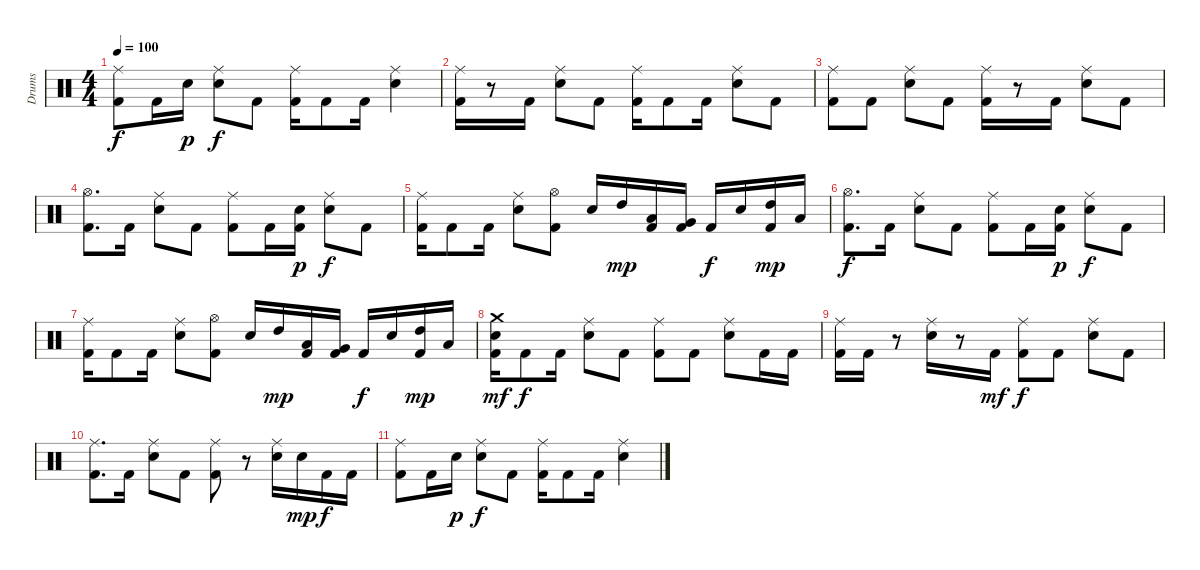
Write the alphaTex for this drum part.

\track ("Drums" "Drums") {instrument percussion}
\staff {score}
\articulation defaults
\ts (4 4)
\tempo 100
\clef neutral
\ks c
("Kick (hit) 2" "Ride (middle)").8{dy f} "Kick (hit) 2".16 "Snare (hit) 2".16{dy p} ("Ride (middle)" "Electric Snare (hit)").8{dy f} "Kick (hit) 2".8 ("Ride (middle)" "Kick (hit) 2").16 "Kick (hit) 2".8 "Kick (hit) 2".16 ("Ride (middle)" "Electric Snare (hit)").4 |
("Ride (middle)" "Kick (hit) 2").16 r.8 "Kick (hit) 2".16 ("Ride (middle)" "Electric Snare (hit)").8 "Kick (hit) 2".8 ("Ride (middle)" "Kick (hit) 2").16 "Kick (hit) 2".8 "Kick (hit) 2".16 ("Ride (middle)" "Electric Snare (hit)").8 "Kick (hit) 2".8 |
("Ride (middle)" "Kick (hit) 2").8 "Kick (hit) 2".8 ("Ride (middle)" "Electric Snare (hit)").8 "Kick (hit) 2".8 ("Ride (middle)" "Kick (hit) 2").16 r.8 "Kick (hit) 2".16 ("Ride (middle)" "Electric Snare (hit)").8 "Kick (hit) 2".8 |
("Hi-Hat (open)" "Kick (hit) 2").8{d} "Kick (hit) 2".16 ("Ride (middle)" "Electric Snare (hit)").8 "Kick (hit) 2".8 ("Kick (hit) 2" "Ride (middle)").8 "Kick (hit) 2".16 ("Kick (hit) 2" "Electric Snare (hit)").16{dy p} ("Ride (middle)" "Electric Snare (hit)").8{dy f} "Kick (hit) 2".8 |
("Ride (middle)" "Kick (hit) 2").16 "Kick (hit) 2".8 "Kick (hit) 2".16 ("Ride (middle)" "Electric Snare (hit)").8 ("Kick (hit) 2" "Hi-Hat (open)").8 "Electric Snare (hit)".16 "High Tom (hit)".16{dy mp} ("Low Tom (hit)" "Kick (hit) 2").16 ("Very Low Tom (hit)" "Kick (hit) 2").16 "Kick (hit) 2".16{dy f} "Electric Snare (hit)".16 ("Kick (hit) 2" "High Tom (hit)").16{dy mp} "Low Tom (hit)".16 |
("Hi-Hat (open)" "Kick (hit) 2").8{d dy f} "Kick (hit) 2".16 ("Ride (middle)" "Electric Snare (hit)").8 "Kick (hit) 2".8 ("Kick (hit) 2" "Ride (middle)").8 "Kick (hit) 2".16 ("Kick (hit) 2" "Electric Snare (hit)").16{dy p} ("Ride (middle)" "Electric Snare (hit)").8{dy f} "Kick (hit) 2".8 |
("Ride (middle)" "Kick (hit) 2").16 "Kick (hit) 2".8 "Kick (hit) 2".16 ("Ride (middle)" "Electric Snare (hit)").8 ("Kick (hit) 2" "Hi-Hat (open)").8 "Electric Snare (hit)".16 "High Tom (hit)".16{dy mp} ("Low Tom (hit)" "Kick (hit) 2").16 ("Very Low Tom (hit)" "Kick (hit) 2").16 "Kick (hit) 2".16{dy f} "Electric Snare (hit)".16 ("Kick (hit) 2" "High Tom (hit)").16{dy mp} "Low Tom (hit)".16 |
("Kick (hit) 2" "Electric Snare (hit)" "Crash medium (hit)").16{dy mf volume 14} "Kick (hit) 2".8{dy f volume 14} "Kick (hit) 2".16{volume 14} ("Ride (middle)" "Electric Snare (hit)").8{volume 14} "Kick (hit) 2".8{volume 13} ("Kick (hit) 2" "Ride (middle)").8{volume 13} "Kick (hit) 2".8{volume 12} ("Electric Snare (hit)" "Ride (middle)").8{volume 12} "Kick (hit) 2".16{volume 11} "Kick (hit) 2".16{volume 11} |
("Ride (middle)" "Kick (hit) 2").16{volume 11} "Kick (hit) 2".16{volume 11} r.8 ("Ride (middle)" "Electric Snare (hit)").16{volume 10} r.8 "Kick (hit) 2".16{dy mf volume 9} ("Kick (hit) 2" "Ride (middle)").8{dy f volume 9} "Kick (hit) 2".8{volume 9} ("Electric Snare (hit)" "Ride (middle)").8{volume 8} "Kick (hit) 2".8{volume 8} |
("Kick (hit) 2" "Ride (middle)").8{d volume 7} "Kick (hit) 2".16{volume 7} ("Electric Snare (hit)" "Ride (middle)").8{volume 6} "Kick (hit) 2".8{volume 6} ("Kick (hit) 2" "Ride (middle)").8{volume 6} r.8 ("Electric Snare (hit)" "Ride (middle)").16{volume 4} "Electric Snare (hit)".16{dy mp volume 4} "Kick (hit) 2".16{dy f volume 4} "Kick (hit) 2".16{volume 4} |
("Kick (hit) 2" "Ride (middle)").8{volume 4} "Kick (hit) 2".16 "Snare (hit) 2".16{dy p} ("Ride (middle)" "Electric Snare (hit)").8{dy f} "Kick (hit) 2".8 ("Ride (middle)" "Kick (hit) 2").16 "Kick (hit) 2".8 "Kick (hit) 2".16 ("Ride (middle)" "Electric Snare (hit)").4
